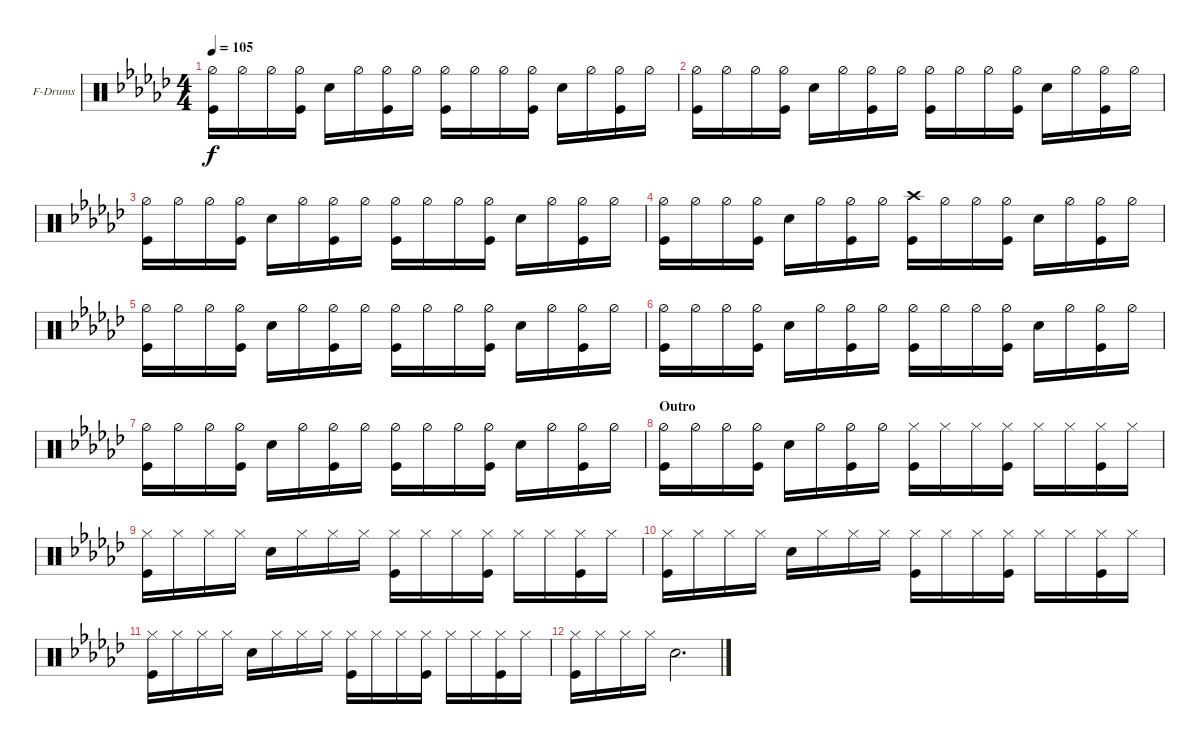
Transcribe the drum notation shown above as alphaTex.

\defaultSystemsLayout 4
\bracketExtendMode groupsimilarinstruments
\firstSystemTrackNameOrientation horizontal
\otherSystemsTrackNameOrientation horizontal
\track ("Fabrizio" "F-Drums") {instrument percussion}
\staff {score}
\articulation defaults
\ts (4 4)
\tempo 105
\clef neutral
\ks ebminor
("Kick (hit)" "Hi-Hat (half)").16{dy f} "Hi-Hat (half)".16 "Hi-Hat (half)".16 ("Kick (hit)" "Hi-Hat (half)").16 "Snare (hit) 2".16 "Hi-Hat (half)".16 ("Kick (hit)" "Hi-Hat (half)").16 "Hi-Hat (half)".16 ("Kick (hit)" "Hi-Hat (half)").16 "Hi-Hat (half)".16 "Hi-Hat (half)".16 ("Kick (hit)" "Hi-Hat (half)").16 "Snare (hit) 2".16 "Hi-Hat (half)".16 ("Kick (hit)" "Hi-Hat (half)").16 "Hi-Hat (half)".16 |
("Kick (hit)" "Hi-Hat (half)").16 "Hi-Hat (half)".16 "Hi-Hat (half)".16 ("Kick (hit)" "Hi-Hat (half)").16 "Snare (hit) 2".16 "Hi-Hat (half)".16 ("Kick (hit)" "Hi-Hat (half)").16 "Hi-Hat (half)".16 ("Kick (hit)" "Hi-Hat (half)").16 "Hi-Hat (half)".16 "Hi-Hat (half)".16 ("Kick (hit)" "Hi-Hat (half)").16 "Snare (hit) 2".16 "Hi-Hat (half)".16 ("Kick (hit)" "Hi-Hat (half)").16 "Hi-Hat (half)".16 |
("Kick (hit)" "Hi-Hat (half)").16 "Hi-Hat (half)".16 "Hi-Hat (half)".16 ("Kick (hit)" "Hi-Hat (half)").16 "Snare (hit) 2".16 "Hi-Hat (half)".16 ("Kick (hit)" "Hi-Hat (half)").16 "Hi-Hat (half)".16 ("Kick (hit)" "Hi-Hat (half)").16 "Hi-Hat (half)".16 "Hi-Hat (half)".16 ("Kick (hit)" "Hi-Hat (half)").16 "Snare (hit) 2".16 "Hi-Hat (half)".16 ("Kick (hit)" "Hi-Hat (half)").16 "Hi-Hat (half)".16 |
("Kick (hit)" "Hi-Hat (half)").16 "Hi-Hat (half)".16 "Hi-Hat (half)".16 ("Kick (hit)" "Hi-Hat (half)").16 "Snare (hit) 2".16 "Hi-Hat (half)".16 ("Kick (hit)" "Hi-Hat (half)").16 "Hi-Hat (half)".16 ("Kick (hit)" "Crash high (hit)").16 "Hi-Hat (half)".16 "Hi-Hat (half)".16 ("Kick (hit)" "Hi-Hat (half)").16 "Snare (hit) 2".16 "Hi-Hat (half)".16 ("Kick (hit)" "Hi-Hat (half)").16 "Hi-Hat (half)".16 |
("Kick (hit)" "Hi-Hat (half)").16 "Hi-Hat (half)".16 "Hi-Hat (half)".16 ("Kick (hit)" "Hi-Hat (half)").16 "Snare (hit) 2".16 "Hi-Hat (half)".16 ("Kick (hit)" "Hi-Hat (half)").16 "Hi-Hat (half)".16 ("Kick (hit)" "Hi-Hat (half)").16 "Hi-Hat (half)".16 "Hi-Hat (half)".16 ("Kick (hit)" "Hi-Hat (half)").16 "Snare (hit) 2".16 "Hi-Hat (half)".16 ("Kick (hit)" "Hi-Hat (half)").16 "Hi-Hat (half)".16 |
("Kick (hit)" "Hi-Hat (half)").16 "Hi-Hat (half)".16 "Hi-Hat (half)".16 ("Kick (hit)" "Hi-Hat (half)").16 "Snare (hit) 2".16 "Hi-Hat (half)".16 ("Kick (hit)" "Hi-Hat (half)").16 "Hi-Hat (half)".16 ("Kick (hit)" "Hi-Hat (half)").16 "Hi-Hat (half)".16 "Hi-Hat (half)".16 ("Kick (hit)" "Hi-Hat (half)").16 "Snare (hit) 2".16 "Hi-Hat (half)".16 ("Kick (hit)" "Hi-Hat (half)").16 "Hi-Hat (half)".16 |
("Kick (hit)" "Hi-Hat (half)").16 "Hi-Hat (half)".16 "Hi-Hat (half)".16 ("Kick (hit)" "Hi-Hat (half)").16 "Snare (hit) 2".16 "Hi-Hat (half)".16 ("Kick (hit)" "Hi-Hat (half)").16 "Hi-Hat (half)".16 ("Kick (hit)" "Hi-Hat (half)").16 "Hi-Hat (half)".16 "Hi-Hat (half)".16 ("Kick (hit)" "Hi-Hat (half)").16 "Snare (hit) 2".16 "Hi-Hat (half)".16 ("Kick (hit)" "Hi-Hat (half)").16 "Hi-Hat (half)".16 |
\section ("" "Outro")
("Kick (hit)" "Hi-Hat (half)").16 "Hi-Hat (half)".16 "Hi-Hat (half)".16 ("Kick (hit)" "Hi-Hat (half)").16 "Snare (hit) 2".16 "Hi-Hat (half)".16 ("Kick (hit)" "Hi-Hat (half)").16 "Hi-Hat (half)".16 ("Kick (hit)" "Hi-Hat (closed)").16 "Hi-Hat (closed)".16 "Hi-Hat (closed)".16 ("Kick (hit)" "Hi-Hat (closed)").16 "Hi-Hat (closed)".16 "Hi-Hat (closed)".16 ("Kick (hit)" "Hi-Hat (closed)").16 "Hi-Hat (closed)".16 |
("Kick (hit)" "Hi-Hat (closed)").16 "Hi-Hat (closed)".16 "Hi-Hat (closed)".16 "Hi-Hat (closed)".16 "Snare (hit) 2".16 "Hi-Hat (closed)".16 "Hi-Hat (closed)".16 "Hi-Hat (closed)".16 ("Kick (hit)" "Hi-Hat (closed)").16 "Hi-Hat (closed)".16 "Hi-Hat (closed)".16 ("Kick (hit)" "Hi-Hat (closed)").16 "Hi-Hat (closed)".16 "Hi-Hat (closed)".16 ("Kick (hit)" "Hi-Hat (closed)").16 "Hi-Hat (closed)".16 |
("Kick (hit)" "Hi-Hat (closed)").16 "Hi-Hat (closed)".16 "Hi-Hat (closed)".16 "Hi-Hat (closed)".16 "Snare (hit) 2".16 "Hi-Hat (closed)".16 "Hi-Hat (closed)".16 "Hi-Hat (closed)".16 ("Kick (hit)" "Hi-Hat (closed)").16 "Hi-Hat (closed)".16 "Hi-Hat (closed)".16 ("Kick (hit)" "Hi-Hat (closed)").16 "Hi-Hat (closed)".16 "Hi-Hat (closed)".16 ("Kick (hit)" "Hi-Hat (closed)").16 "Hi-Hat (closed)".16 |
("Kick (hit)" "Hi-Hat (closed)").16 "Hi-Hat (closed)".16 "Hi-Hat (closed)".16 "Hi-Hat (closed)".16 "Snare (hit) 2".16 "Hi-Hat (closed)".16 "Hi-Hat (closed)".16 "Hi-Hat (closed)".16 ("Kick (hit)" "Hi-Hat (closed)").16 "Hi-Hat (closed)".16 "Hi-Hat (closed)".16 ("Kick (hit)" "Hi-Hat (closed)").16 "Hi-Hat (closed)".16 "Hi-Hat (closed)".16 ("Kick (hit)" "Hi-Hat (closed)").16 "Hi-Hat (closed)".16 |
("Kick (hit)" "Hi-Hat (closed)").16 "Hi-Hat (closed)".16 "Hi-Hat (closed)".16 "Hi-Hat (closed)".16 "Snare (hit) 2".2{d}
